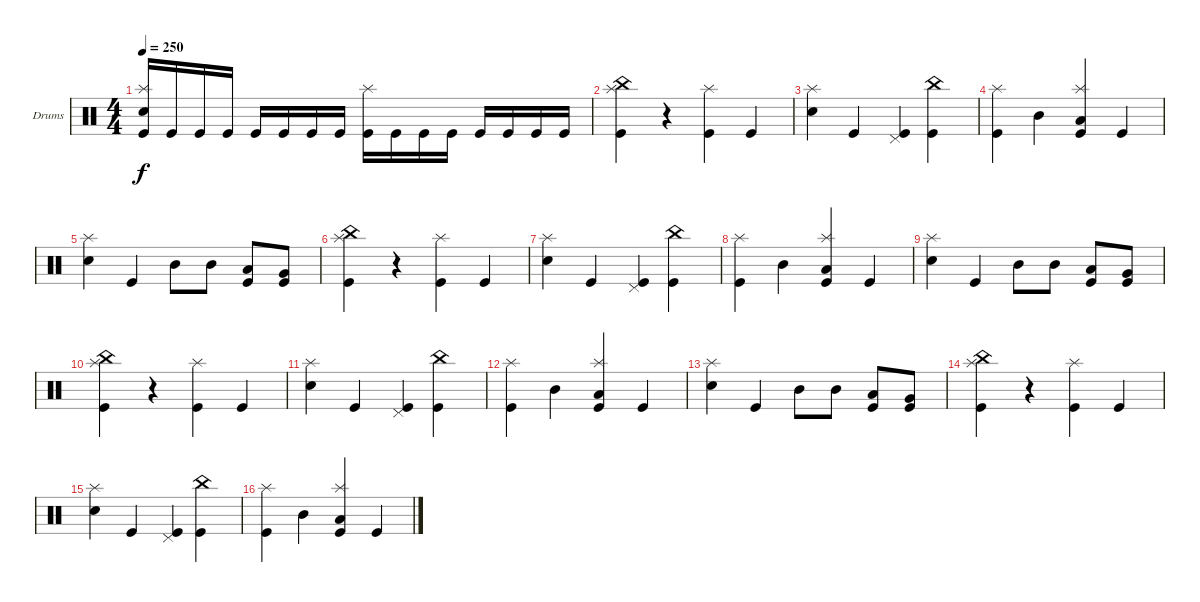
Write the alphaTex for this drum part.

\defaultSystemsLayout 4
\bracketExtendMode groupsimilarinstruments
\firstSystemTrackNameOrientation horizontal
\otherSystemsTrackNameOrientation horizontal
\track ("Drumkit" "Drums") {instrument percussion}
\staff {score}
\articulation defaults
\ts (4 4)
\tempo 250
\clef neutral
\ks c
("Kick (hit)" "Splash (hit)" "Snare (hit) 2").16{dy f} "Kick (hit)".16 "Kick (hit)".16 "Kick (hit)".16 "Kick (hit)".16 "Kick (hit)".16 "Kick (hit)".16 "Kick (hit)".16 ("Kick (hit)" "Splash (hit)").16 "Kick (hit)".16 "Kick (hit)".16 "Kick (hit)".16 "Kick (hit)".16 "Kick (hit)".16 "Kick (hit)".16 "Kick (hit)".16 |
("Kick (hit)" "China (hit)" "Splash (hit)").4 r.4 ("Kick (hit)" "Splash (hit)").4 "Kick (hit)".4 |
("Snare (hit) 2" "Splash (hit)").4 "Kick (hit)".4 ("Kick (hit)" "Pedal Hi-Hat (hit)").4 ("Kick (hit)" "China (hit)").4 |
("Kick (hit)" "Splash (hit)").4 "Mid Tom (hit)".4 ("Low Tom (hit)" "Kick (hit)" "Splash (hit)").4 "Kick (hit)".4 |
("Snare (hit) 2" "Splash (hit)").4 "Kick (hit)".4 "Mid Tom (hit)".8 "Mid Tom (hit)".8 ("Low Tom (hit)" "Kick (hit)").8 ("Very Low Tom (hit)" "Kick (hit)").8 |
("Kick (hit)" "China (hit)" "Splash (hit)").4 r.4 ("Kick (hit)" "Splash (hit)").4 "Kick (hit)".4 |
("Snare (hit) 2" "Splash (hit)").4 "Kick (hit)".4 ("Kick (hit)" "Pedal Hi-Hat (hit)").4 ("Kick (hit)" "China (hit)").4 |
("Kick (hit)" "Splash (hit)").4 "Mid Tom (hit)".4 ("Low Tom (hit)" "Kick (hit)" "Splash (hit)").4 "Kick (hit)".4 |
("Snare (hit) 2" "Splash (hit)").4 "Kick (hit)".4 "Mid Tom (hit)".8 "Mid Tom (hit)".8 ("Low Tom (hit)" "Kick (hit)").8 ("Very Low Tom (hit)" "Kick (hit)").8 |
("Kick (hit)" "China (hit)" "Splash (hit)").4 r.4 ("Kick (hit)" "Splash (hit)").4 "Kick (hit)".4 |
("Snare (hit) 2" "Splash (hit)").4 "Kick (hit)".4 ("Kick (hit)" "Pedal Hi-Hat (hit)").4 ("Kick (hit)" "China (hit)").4 |
("Kick (hit)" "Splash (hit)").4 "Mid Tom (hit)".4 ("Low Tom (hit)" "Kick (hit)" "Splash (hit)").4 "Kick (hit)".4 |
("Snare (hit) 2" "Splash (hit)").4 "Kick (hit)".4 "Mid Tom (hit)".8 "Mid Tom (hit)".8 ("Low Tom (hit)" "Kick (hit)").8 ("Very Low Tom (hit)" "Kick (hit)").8 |
("Kick (hit)" "China (hit)" "Splash (hit)").4 r.4 ("Kick (hit)" "Splash (hit)").4 "Kick (hit)".4 |
("Snare (hit) 2" "Splash (hit)").4 "Kick (hit)".4 ("Kick (hit)" "Pedal Hi-Hat (hit)").4 ("Kick (hit)" "China (hit)").4 |
("Kick (hit)" "Splash (hit)").4 "Mid Tom (hit)".4 ("Low Tom (hit)" "Kick (hit)" "Splash (hit)").4 "Kick (hit)".4
